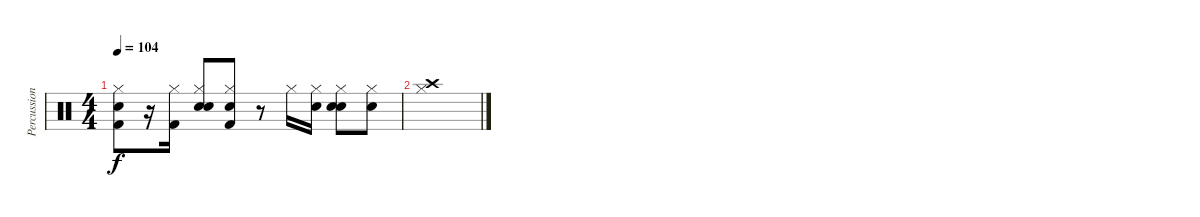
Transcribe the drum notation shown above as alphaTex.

\track ("Percussion" "Percussion") {instrument percussion}
\staff {score}
\articulation defaults
\ts (4 4)
\tempo 104
\clef neutral
\ks c
("Snare (hit)" "Hi-Hat (closed)" "Kick (hit) 2").8{dy f} r.16 ("Kick (hit) 2" "Hi-Hat (closed)").16 ("Snare (hit)" "Electric Snare (hit)" "Hi-Hat (closed)").8 ("Snare (hit)" "Kick (hit) 2" "Hi-Hat (closed)").8 r.8 "Hi-Hat (closed)".16 ("Snare (hit)" "Hi-Hat (closed)").16 ("Snare (hit)" "Electric Snare (hit)" "Hi-Hat (closed)").8 ("Snare (hit)" "Hi-Hat (closed)").8 |
("Crash high (hit)" "Hi-Hat (closed)").1
